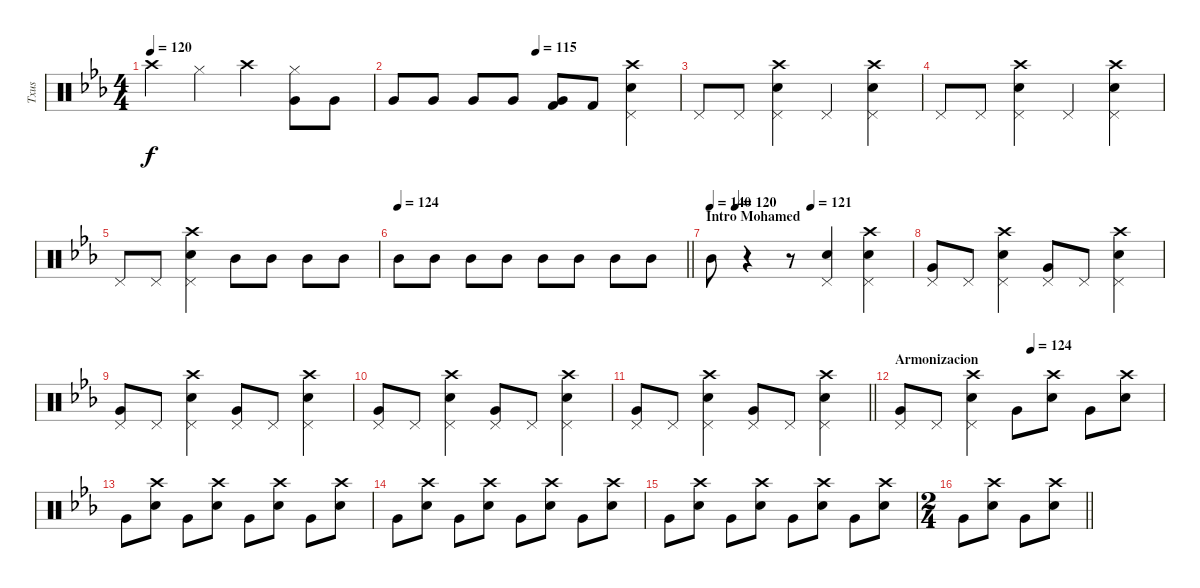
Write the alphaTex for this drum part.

\track ("Txus" "Txus") {instrument percussion}
\staff {score}
\articulation defaults
\ts (4 4)
\tempo 120
\clef neutral
\ks eb "Crash high (hit)".4{dy f} "Hi-Hat (closed)".4 "Crash high (hit)".4
("Hi-Hat (closed)" "Very Low Tom (hit)").8{volume 5} "Very Low Tom (hit)".8 |
\tempo (115 0.5)
"Very Low Tom (hit)".8 "Very Low Tom (hit)".8{volume 12} "Very Low Tom (hit)".8 "Very Low Tom (hit)".8 ("Very Low Tom (hit)" "Kick (hit) 2").8 "Kick (hit) 2".8 ("Crash high (hit)" "Pedal Hi-Hat (hit)" "Snare (hit) 2").4 |
"Pedal Hi-Hat (hit)".8 "Pedal Hi-Hat (hit)".8 ("Crash high (hit)" "Pedal Hi-Hat (hit)" "Snare (hit) 2").4 "Pedal Hi-Hat (hit)".4 ("Crash high (hit)" "Pedal Hi-Hat (hit)" "Snare (hit) 2").4 |
"Pedal Hi-Hat (hit)".8 "Pedal Hi-Hat (hit)".8 ("Crash high (hit)" "Pedal Hi-Hat (hit)" "Snare (hit) 2").4 "Pedal Hi-Hat (hit)".4 ("Crash high (hit)" "Pedal Hi-Hat (hit)" "Snare (hit) 2").4 |
"Pedal Hi-Hat (hit)".8 "Pedal Hi-Hat (hit)".8 ("Crash high (hit)" "Pedal Hi-Hat (hit)" "Snare (hit) 2").4 "Mid Tom (hit)".8{volume 9} "Mid Tom (hit)".8 "Mid Tom (hit)".8 "Mid Tom (hit)".8 |
\tempo 124
\barLineRight lightlight "Mid Tom (hit)".8{volume 14} "Mid Tom (hit)".8 "Mid Tom (hit)".8 "Mid Tom (hit)".8 "Mid Tom (hit)".8 "Mid Tom (hit)".8 "Mid Tom (hit)".8 "Mid Tom (hit)".8
|
\section ("" "Intro Mohamed")
\tempo 140
\tempo (120 0.125)
\tempo (121 0.5)
"Mid Tom (hit)".8 r.4 r.8 ("Pedal Hi-Hat (hit)" "Snare (hit) 2").4 ("Crash high (hit)" "Pedal Hi-Hat (hit)" "Snare (hit) 2").4 |
("Pedal Hi-Hat (hit)" "Very Low Tom (hit)").8 "Pedal Hi-Hat (hit)".8 ("Crash high (hit)" "Pedal Hi-Hat (hit)" "Snare (hit) 2").4 ("Pedal Hi-Hat (hit)" "Very Low Tom (hit)").8 "Pedal Hi-Hat (hit)".8 ("Crash high (hit)" "Pedal Hi-Hat (hit)" "Snare (hit) 2").4 |
("Pedal Hi-Hat (hit)" "Very Low Tom (hit)").8 "Pedal Hi-Hat (hit)".8 ("Crash high (hit)" "Pedal Hi-Hat (hit)" "Snare (hit) 2").4 ("Pedal Hi-Hat (hit)" "Very Low Tom (hit)").8 "Pedal Hi-Hat (hit)".8 ("Crash high (hit)" "Pedal Hi-Hat (hit)" "Snare (hit) 2").4 |
("Pedal Hi-Hat (hit)" "Very Low Tom (hit)").8 "Pedal Hi-Hat (hit)".8 ("Crash high (hit)" "Pedal Hi-Hat (hit)" "Snare (hit) 2").4 ("Pedal Hi-Hat (hit)" "Very Low Tom (hit)").8 "Pedal Hi-Hat (hit)".8 ("Crash high (hit)" "Pedal Hi-Hat (hit)" "Snare (hit) 2").4 |
\barLineRight lightlight
("Pedal Hi-Hat (hit)" "Very Low Tom (hit)").8 "Pedal Hi-Hat (hit)".8 ("Crash high (hit)" "Pedal Hi-Hat (hit)" "Snare (hit) 2").4 ("Pedal Hi-Hat (hit)" "Very Low Tom (hit)").8 "Pedal Hi-Hat (hit)".8 ("Crash high (hit)" "Pedal Hi-Hat (hit)" "Snare (hit) 2").4 |
\section ("" "Armonizacion")
\tempo (124 0.5)
("Pedal Hi-Hat (hit)" "Very Low Tom (hit)").8 "Pedal Hi-Hat (hit)".8 ("Crash high (hit)" "Pedal Hi-Hat (hit)" "Snare (hit) 2").4 "Very Low Tom (hit)".8 ("Crash high (hit)" "Electric Snare (hit)").8 "Very Low Tom (hit)".8 ("Crash high (hit)" "Electric Snare (hit)").8 |
"Very Low Tom (hit)".8 ("Crash high (hit)" "Electric Snare (hit)").8 "Very Low Tom (hit)".8 ("Crash high (hit)" "Electric Snare (hit)").8 "Very Low Tom (hit)".8 ("Crash high (hit)" "Electric Snare (hit)").8 "Very Low Tom (hit)".8 ("Crash high (hit)" "Electric Snare (hit)").8 |
"Very Low Tom (hit)".8 ("Crash high (hit)" "Electric Snare (hit)").8 "Very Low Tom (hit)".8 ("Crash high (hit)" "Electric Snare (hit)").8 "Very Low Tom (hit)".8 ("Crash high (hit)" "Electric Snare (hit)").8 "Very Low Tom (hit)".8 ("Crash high (hit)" "Electric Snare (hit)").8 |
"Very Low Tom (hit)".8 ("Crash high (hit)" "Electric Snare (hit)").8 "Very Low Tom (hit)".8 ("Crash high (hit)" "Electric Snare (hit)").8 "Very Low Tom (hit)".8 ("Crash high (hit)" "Electric Snare (hit)").8 "Very Low Tom (hit)".8 ("Crash high (hit)" "Electric Snare (hit)").8 |
\ts (2 4)
\barLineRight lightlight "Very Low Tom (hit)".8
("Crash high (hit)" "Electric Snare (hit)").8 "Very Low Tom (hit)".8 ("Crash high (hit)" "Electric Snare (hit)").8
